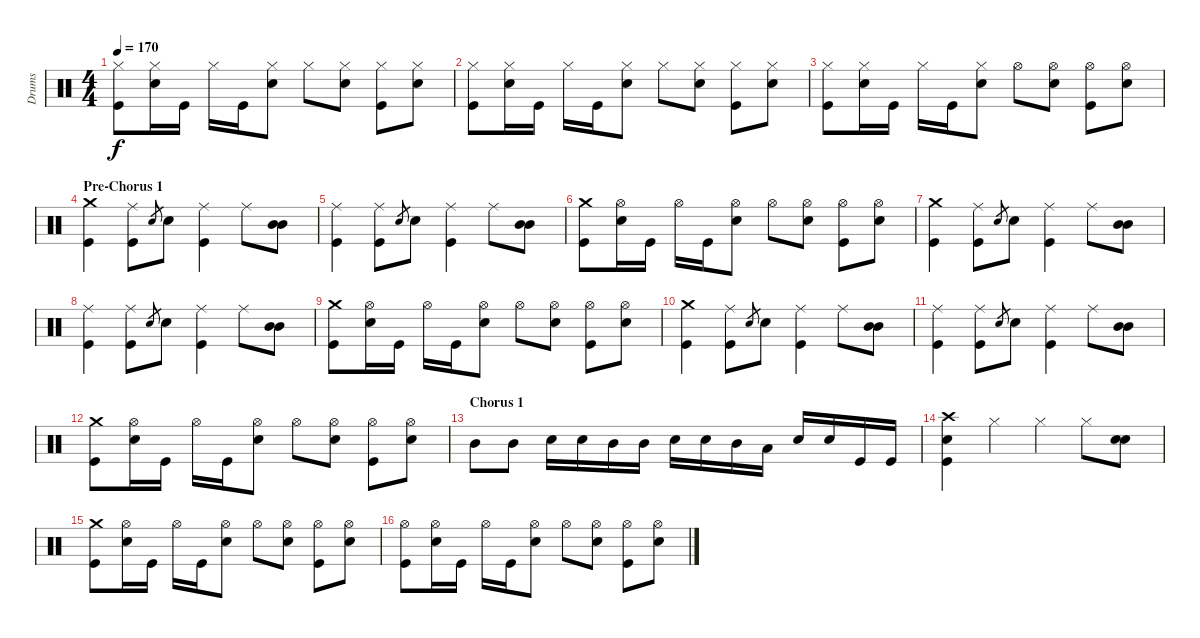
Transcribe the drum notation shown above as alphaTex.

\track ("Drums" "Drums") {instrument percussion}
\staff {score}
\articulation defaults
\ts (4 4)
\tempo 170
\clef neutral
\ks c
("Hi-Hat (closed)" "Kick (hit)").8{dy f} ("Hi-Hat (closed)" "Snare (hit) 2").16 "Kick (hit)".16 "Hi-Hat (closed)".16 "Kick (hit)".16 ("Hi-Hat (closed)" "Snare (hit) 2").8 "Hi-Hat (closed)".8 ("Hi-Hat (closed)" "Snare (hit) 2").8 ("Hi-Hat (closed)" "Kick (hit)").8 ("Hi-Hat (closed)" "Snare (hit) 2").8 |
("Hi-Hat (closed)" "Kick (hit)").8 ("Hi-Hat (closed)" "Snare (hit) 2").16 "Kick (hit)".16 "Hi-Hat (closed)".16 "Kick (hit)".16 ("Hi-Hat (closed)" "Snare (hit) 2").8 "Hi-Hat (closed)".8 ("Hi-Hat (closed)" "Snare (hit) 2").8 ("Hi-Hat (closed)" "Kick (hit)").8 ("Hi-Hat (closed)" "Snare (hit) 2").8 |
("Hi-Hat (closed)" "Kick (hit)").8 ("Hi-Hat (closed)" "Snare (hit) 2").16 "Kick (hit)".16 "Hi-Hat (closed)".16 "Kick (hit)".16 ("Hi-Hat (closed)" "Snare (hit) 2").8 "Hi-Hat (open)".8{volume 9} ("Hi-Hat (open)" "Snare (hit) 2").8{volume 10} ("Hi-Hat (open)" "Kick (hit)").8{volume 12} ("Hi-Hat (open)" "Snare (hit) 2").8{volume 13} |
\section ("" "Pre-Chorus 1")
("Crash medium (hit)" "Kick (hit)").4 ("Ride (middle)" "Kick (hit)").8 "Snare (hit) 2".8{gr} "Snare (hit) 2".8 ("Ride (middle)" "Kick (hit)").4 "Ride (middle)".8 ("Mid Tom (hit)" "Mid Tom (hit)").8 |
("Ride (middle)" "Kick (hit)").4 ("Ride (middle)" "Kick (hit)").8 "Snare (hit) 2".8{gr} "Snare (hit) 2".8 ("Ride (middle)" "Kick (hit)").4 "Ride (middle)".8 ("Mid Tom (hit)" "Mid Tom (hit)").8 |
("Crash medium (hit)" "Kick (hit)").8 ("Hi-Hat (open)" "Snare (hit) 2").16 "Kick (hit)".16 "Hi-Hat (open)".16 "Kick (hit)".16 ("Hi-Hat (open)" "Snare (hit) 2").8 "Hi-Hat (open)".8 ("Hi-Hat (open)" "Snare (hit) 2").8 ("Hi-Hat (open)" "Kick (hit)").8 ("Hi-Hat (open)" "Snare (hit) 2").8 |
("Crash medium (hit)" "Kick (hit)").4 ("Ride (middle)" "Kick (hit)").8 "Snare (hit) 2".8{gr} "Snare (hit) 2".8 ("Ride (middle)" "Kick (hit)").4 "Ride (middle)".8 ("Mid Tom (hit)" "Mid Tom (hit)").8 |
("Ride (middle)" "Kick (hit)").4 ("Ride (middle)" "Kick (hit)").8 "Snare (hit) 2".8{gr} "Snare (hit) 2".8 ("Ride (middle)" "Kick (hit)").4 "Ride (middle)".8 ("Mid Tom (hit)" "Mid Tom (hit)").8 |
("Crash medium (hit)" "Kick (hit)").8 ("Hi-Hat (open)" "Snare (hit) 2").16 "Kick (hit)".16 "Hi-Hat (open)".16 "Kick (hit)".16 ("Hi-Hat (open)" "Snare (hit) 2").8 "Hi-Hat (open)".8 ("Hi-Hat (open)" "Snare (hit) 2").8 ("Hi-Hat (open)" "Kick (hit)").8 ("Hi-Hat (open)" "Snare (hit) 2").8 |
("Crash medium (hit)" "Kick (hit)").4 ("Ride (middle)" "Kick (hit)").8 "Snare (hit) 2".8{gr} "Snare (hit) 2".8 ("Ride (middle)" "Kick (hit)").4 "Ride (middle)".8 ("Mid Tom (hit)" "Mid Tom (hit)").8 |
("Ride (middle)" "Kick (hit)").4 ("Ride (middle)" "Kick (hit)").8 "Snare (hit) 2".8{gr} "Snare (hit) 2".8 ("Ride (middle)" "Kick (hit)").4 "Ride (middle)".8 ("Mid Tom (hit)" "Mid Tom (hit)").8 |
("Crash medium (hit)" "Kick (hit)").8 ("Hi-Hat (open)" "Snare (hit) 2").16 "Kick (hit)".16 "Hi-Hat (open)".16 "Kick (hit)".16 ("Hi-Hat (open)" "Snare (hit) 2").8 "Hi-Hat (open)".8 ("Hi-Hat (open)" "Snare (hit) 2").8 ("Hi-Hat (open)" "Kick (hit)").8 ("Hi-Hat (open)" "Snare (hit) 2").8 |
\section ("" "Chorus 1")
"Mid Tom (hit)".8 "Mid Tom (hit)".8 "Snare (hit) 2".16 "Snare (hit) 2".16 "Mid Tom (hit)".16 "Mid Tom (hit)".16 "Snare (hit) 2".16 "Snare (hit) 2".16 "Mid Tom (hit)".16 "Low Tom (hit)".16 "Snare (hit) 2".16 "Snare (hit) 2".16 "Kick (hit)".16 "Kick (hit)".16 |
("Crash high (hit)" "Snare (hit) 2" "Kick (hit)").4 "Hi-Hat (closed)".4{volume 9} "Hi-Hat (closed)".4{volume 9} "Hi-Hat (closed)".8{volume 9} ("Snare (hit) 2" "Snare (hit) 2").8{volume 13} |
("Crash medium (hit)" "Kick (hit)").8 ("Hi-Hat (open)" "Snare (hit) 2").16 "Kick (hit)".16 "Hi-Hat (open)".16 "Kick (hit)".16 ("Hi-Hat (open)" "Snare (hit) 2").8 "Hi-Hat (open)".8 ("Hi-Hat (open)" "Snare (hit) 2").8 ("Hi-Hat (open)" "Kick (hit)").8 ("Hi-Hat (open)" "Snare (hit) 2").8 |
("Hi-Hat (open)" "Kick (hit)").8 ("Hi-Hat (open)" "Snare (hit) 2").16 "Kick (hit)".16 "Hi-Hat (open)".16 "Kick (hit)".16 ("Hi-Hat (open)" "Snare (hit) 2").8 "Hi-Hat (open)".8 ("Hi-Hat (open)" "Snare (hit) 2").8 ("Hi-Hat (open)" "Kick (hit)").8 ("Hi-Hat (open)" "Snare (hit) 2").8
